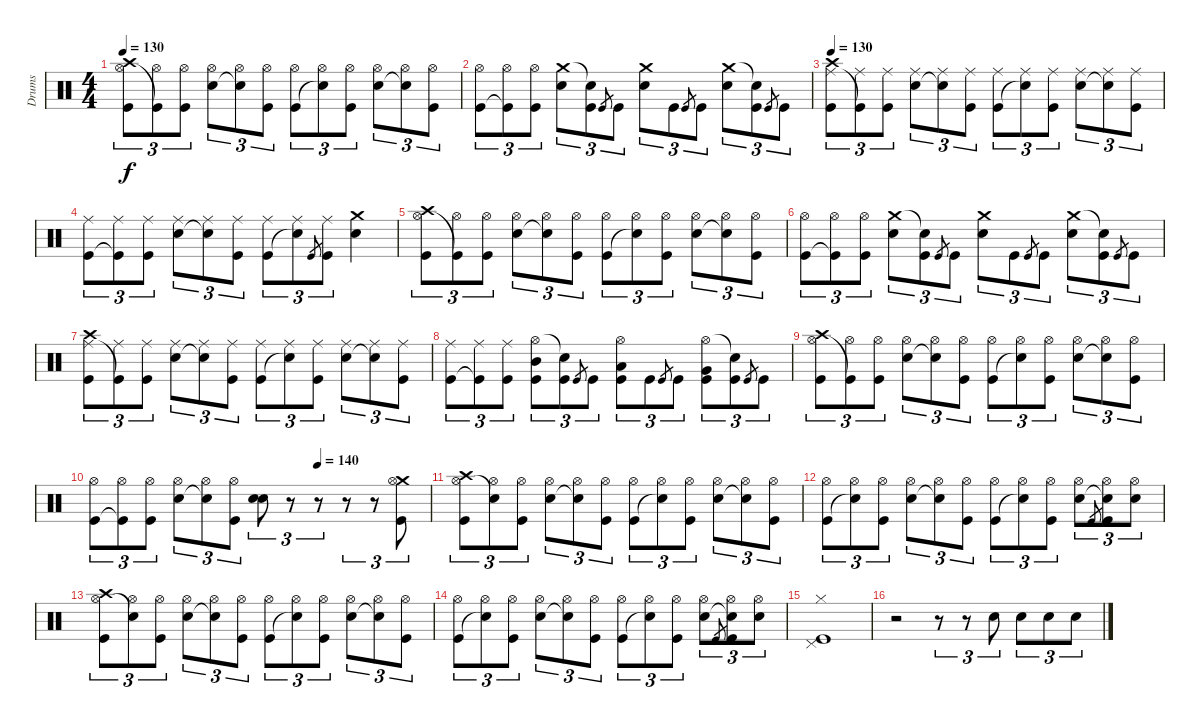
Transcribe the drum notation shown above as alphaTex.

\track ("Drums" "Drums") {instrument percussion}
\staff {score}
\articulation defaults
\ts (4 4)
\tempo 130
\clef neutral
\ks c
("Crash high (hit)" "Hi-Hat (open)" "Kick (hit)").8{tu (3 2) dy f} ("Hi-Hat (open)" "Kick (hit)"{t}).8{tu (3 2)} ("Hi-Hat (open)" "Kick (hit)").8{tu (3 2)} ("Hi-Hat (open)" "Electric Snare (hit)").8{tu (3 2)} ("Hi-Hat (open)" "Snare (hit)"{t}).8{tu (3 2)} ("Hi-Hat (open)" "Kick (hit)").8{tu (3 2)} ("Hi-Hat (open)" "Kick (hit)").8{tu (3 2)} ("Hi-Hat (open)" "Snare (hit)"{t}).8{tu (3 2)} ("Hi-Hat (open)" "Kick (hit)").8{tu (3 2)} ("Hi-Hat (open)" "Electric Snare (hit)").8{tu (3 2)} ("Hi-Hat (open)" "Snare (hit)"{t}).8{tu (3 2)} ("Hi-Hat (open)" "Kick (hit)").8{tu (3 2)} |
("Hi-Hat (open)" "Kick (hit)").8{tu (3 2)} ("Hi-Hat (open)" "Kick (hit)"{t}).8{tu (3 2)} ("Hi-Hat (open)" "Kick (hit)").8{tu (3 2)} ("Crash medium (hit)" "Electric Snare (hit)").8{tu (3 2)} ("Snare (hit)"{t} "Kick (hit)").8{tu (3 2)} "Kick (hit)".8{gr} "Kick (hit)".8{tu (3 2)} ("Crash medium (hit)" "Electric Snare (hit)").8{tu (3 2)} "Kick (hit)".8{tu (3 2)} "Kick (hit)".8{gr} "Kick (hit)".8{tu (3 2)} ("Crash medium (hit)" "Electric Snare (hit)").8{tu (3 2)} ("Snare (hit)"{t} "Kick (hit)").8{tu (3 2)} "Kick (hit)".8{gr} "Kick (hit)".8{tu (3 2)} |
\tempo 130
("Crash high (hit)" "Ride (middle)" "Kick (hit)").8{tu (3 2)} ("Ride (middle)" "Kick (hit)"{t}).8{tu (3 2)} ("Ride (middle)" "Kick (hit)").8{tu (3 2)} ("Ride (middle)" "Electric Snare (hit)").8{tu (3 2)} ("Ride (middle)" "Snare (hit)"{t}).8{tu (3 2)} ("Ride (middle)" "Kick (hit)").8{tu (3 2)} ("Ride (middle)" "Kick (hit)").8{tu (3 2)} ("Ride (middle)" "Snare (hit)"{t}).8{tu (3 2)} ("Ride (middle)" "Kick (hit)").8{tu (3 2)} ("Ride (middle)" "Electric Snare (hit)").8{tu (3 2)} ("Ride (middle)" "Snare (hit)"{t}).8{tu (3 2)} ("Ride (middle)" "Kick (hit)").8{tu (3 2)} |
("Ride (middle)" "Kick (hit)").8{tu (3 2)} ("Ride (middle)" "Kick (hit)"{t}).8{tu (3 2)} ("Ride (middle)" "Kick (hit)").8{tu (3 2)} ("Ride (middle)" "Electric Snare (hit)").8{tu (3 2)} ("Ride (middle)" "Snare (hit)"{t}).8{tu (3 2)} ("Ride (middle)" "Kick (hit)").8{tu (3 2)} ("Ride (middle)" "Kick (hit)").8{tu (3 2)} ("Ride (middle)" "Snare (hit)"{t}).8{tu (3 2)} "Kick (hit)".8{gr} ("Ride (middle)" "Kick (hit)").8{tu (3 2)} ("Crash medium (hit)" "Electric Snare (hit)").4 |
("Crash high (hit)" "Hi-Hat (open)" "Kick (hit)").8{tu (3 2)} ("Hi-Hat (open)" "Kick (hit)"{t}).8{tu (3 2)} ("Hi-Hat (open)" "Kick (hit)").8{tu (3 2)} ("Hi-Hat (open)" "Electric Snare (hit)").8{tu (3 2)} ("Hi-Hat (open)" "Snare (hit)"{t}).8{tu (3 2)} ("Hi-Hat (open)" "Kick (hit)").8{tu (3 2)} ("Hi-Hat (open)" "Kick (hit)").8{tu (3 2)} ("Hi-Hat (open)" "Snare (hit)"{t}).8{tu (3 2)} ("Hi-Hat (open)" "Kick (hit)").8{tu (3 2)} ("Hi-Hat (open)" "Electric Snare (hit)").8{tu (3 2)} ("Hi-Hat (open)" "Snare (hit)"{t}).8{tu (3 2)} ("Hi-Hat (open)" "Kick (hit)").8{tu (3 2)} |
("Hi-Hat (open)" "Kick (hit)").8{tu (3 2)} ("Hi-Hat (open)" "Kick (hit)"{t}).8{tu (3 2)} ("Hi-Hat (open)" "Kick (hit)").8{tu (3 2)} ("Crash medium (hit)" "Electric Snare (hit)").8{tu (3 2)} ("Snare (hit)"{t} "Kick (hit)").8{tu (3 2)} "Kick (hit)".8{gr} "Kick (hit)".8{tu (3 2)} ("Crash medium (hit)" "Electric Snare (hit)").8{tu (3 2)} "Kick (hit)".8{tu (3 2)} "Kick (hit)".8{gr} "Kick (hit)".8{tu (3 2)} ("Crash medium (hit)" "Electric Snare (hit)").8{tu (3 2)} ("Snare (hit)"{t} "Kick (hit)").8{tu (3 2)} "Kick (hit)".8{gr} "Kick (hit)".8{tu (3 2)} |
("Crash high (hit)" "Ride (middle)" "Kick (hit)").8{tu (3 2)} ("Ride (middle)" "Kick (hit)"{t}).8{tu (3 2)} ("Ride (middle)" "Kick (hit)").8{tu (3 2)} ("Ride (middle)" "Electric Snare (hit)").8{tu (3 2)} ("Ride (middle)" "Snare (hit)"{t}).8{tu (3 2)} ("Ride (middle)" "Kick (hit)").8{tu (3 2)} ("Ride (middle)" "Kick (hit)").8{tu (3 2)} ("Ride (middle)" "Snare (hit)"{t}).8{tu (3 2)} ("Ride (middle)" "Kick (hit)").8{tu (3 2)} ("Ride (middle)" "Electric Snare (hit)").8{tu (3 2)} ("Ride (middle)" "Snare (hit)"{t}).8{tu (3 2)} ("Ride (middle)" "Kick (hit)").8{tu (3 2)} |
("Ride (middle)" "Kick (hit)").8{tu (3 2)} ("Ride (middle)" "Kick (hit)"{t}).8{tu (3 2)} ("Ride (middle)" "Kick (hit)").8{tu (3 2)} ("Hi-Hat (open)" "Mid Tom (hit)" "Kick (hit)").8{tu (3 2)} ("Snare (hit)"{t} "Kick (hit)").8{tu (3 2)} "Kick (hit)".8{gr} "Kick (hit)".8{tu (3 2)} ("Hi-Hat (open)" "Low Tom (hit)" "Kick (hit)").8{tu (3 2)} "Kick (hit)".8{tu (3 2)} "Kick (hit)".8{gr} "Kick (hit)".8{tu (3 2)} ("Hi-Hat (open)" "Very Low Tom (hit)" "Kick (hit)").8{tu (3 2)} ("Snare (hit)"{t} "Kick (hit)").8{tu (3 2)} "Kick (hit)".8{gr} "Kick (hit)".8{tu (3 2)} |
("Crash high (hit)" "Hi-Hat (open)" "Kick (hit)").8{tu (3 2)} ("Hi-Hat (open)" "Kick (hit)"{t}).8{tu (3 2)} ("Hi-Hat (open)" "Kick (hit)").8{tu (3 2)} ("Hi-Hat (open)" "Electric Snare (hit)").8{tu (3 2)} ("Hi-Hat (open)" "Snare (hit)"{t}).8{tu (3 2)} ("Hi-Hat (open)" "Kick (hit)").8{tu (3 2)} ("Hi-Hat (open)" "Kick (hit)").8{tu (3 2)} ("Hi-Hat (open)" "Snare (hit)"{t}).8{tu (3 2)} ("Hi-Hat (open)" "Kick (hit)").8{tu (3 2)} ("Hi-Hat (open)" "Electric Snare (hit)").8{tu (3 2)} ("Hi-Hat (open)" "Snare (hit)"{t}).8{tu (3 2)} ("Hi-Hat (open)" "Kick (hit)").8{tu (3 2)} |
\tempo (140 0.6666666666666666)
("Hi-Hat (open)" "Kick (hit)").8{tu (3 2)} ("Hi-Hat (open)" "Kick (hit)"{t}).8{tu (3 2)} ("Hi-Hat (open)" "Kick (hit)").8{tu (3 2)} ("Hi-Hat (open)" "Electric Snare (hit)").8{tu (3 2)} ("Hi-Hat (open)" "Snare (hit)"{t}).8{tu (3 2)} ("Hi-Hat (open)" "Kick (hit)").8{tu (3 2)} ("Snare (hit) 2" "Electric Snare (hit)").8{tu (3 2)} r.8{tu (3 2)} r.8{tu (3 2)} r.8{tu (3 2)} r.8{tu (3 2)} ("Crash medium (hit)" "Hi-Hat (open)" "Kick (hit)").8{tu (3 2)} |
("Crash high (hit)" "Hi-Hat (open)" "Kick (hit)").8{tu (3 2)} ("Hi-Hat (open)" "Snare (hit)"{t}).8{tu (3 2)} ("Hi-Hat (open)" "Kick (hit)").8{tu (3 2)} ("Hi-Hat (open)" "Electric Snare (hit)").8{tu (3 2)} ("Hi-Hat (open)" "Snare (hit)"{t}).8{tu (3 2)} ("Hi-Hat (open)" "Kick (hit)").8{tu (3 2)} ("Hi-Hat (open)" "Kick (hit)").8{tu (3 2)} ("Hi-Hat (open)" "Snare (hit)"{t}).8{tu (3 2)} ("Hi-Hat (open)" "Kick (hit)").8{tu (3 2)} ("Hi-Hat (open)" "Electric Snare (hit)").8{tu (3 2)} ("Hi-Hat (open)" "Snare (hit)"{t}).8{tu (3 2)} ("Hi-Hat (open)" "Kick (hit)").8{tu (3 2)} |
("Hi-Hat (open)" "Kick (hit)").8{tu (3 2)} ("Hi-Hat (open)" "Snare (hit)"{t}).8{tu (3 2)} ("Hi-Hat (open)" "Kick (hit)").8{tu (3 2)} ("Hi-Hat (open)" "Electric Snare (hit)").8{tu (3 2)} ("Hi-Hat (open)" "Snare (hit)"{t}).8{tu (3 2)} ("Hi-Hat (open)" "Kick (hit)").8{tu (3 2)} ("Hi-Hat (open)" "Kick (hit)").8{tu (3 2)} ("Hi-Hat (open)" "Snare (hit)"{t}).8{tu (3 2)} ("Hi-Hat (open)" "Kick (hit)").8{tu (3 2)} ("Hi-Hat (open)" "Electric Snare (hit)").8{tu (3 2)} "Kick (hit)".8{gr} ("Hi-Hat (open)" "Snare (hit)"{t} "Kick (hit)").8{tu (3 2)} ("Hi-Hat (open)" "Electric Snare (hit)").8{tu (3 2)} |
("Crash high (hit)" "Hi-Hat (open)" "Kick (hit)").8{tu (3 2)} ("Hi-Hat (open)" "Snare (hit)"{t}).8{tu (3 2)} ("Hi-Hat (open)" "Kick (hit)").8{tu (3 2)} ("Hi-Hat (open)" "Electric Snare (hit)").8{tu (3 2)} ("Hi-Hat (open)" "Snare (hit)"{t}).8{tu (3 2)} ("Hi-Hat (open)" "Kick (hit)").8{tu (3 2)} ("Hi-Hat (open)" "Kick (hit)").8{tu (3 2)} ("Hi-Hat (open)" "Snare (hit)"{t}).8{tu (3 2)} ("Hi-Hat (open)" "Kick (hit)").8{tu (3 2)} ("Hi-Hat (open)" "Electric Snare (hit)").8{tu (3 2)} ("Hi-Hat (open)" "Snare (hit)"{t}).8{tu (3 2)} ("Hi-Hat (open)" "Kick (hit)").8{tu (3 2)} |
("Hi-Hat (open)" "Kick (hit)").8{tu (3 2)} ("Hi-Hat (open)" "Snare (hit)"{t}).8{tu (3 2)} ("Hi-Hat (open)" "Kick (hit)").8{tu (3 2)} ("Hi-Hat (open)" "Electric Snare (hit)").8{tu (3 2)} ("Hi-Hat (open)" "Snare (hit)"{t}).8{tu (3 2)} ("Hi-Hat (open)" "Kick (hit)").8{tu (3 2)} ("Hi-Hat (open)" "Kick (hit)").8{tu (3 2)} ("Hi-Hat (open)" "Snare (hit)"{t}).8{tu (3 2)} ("Hi-Hat (open)" "Kick (hit)").8{tu (3 2)} ("Hi-Hat (open)" "Electric Snare (hit)").8{tu (3 2)} "Kick (hit)".8{gr} ("Hi-Hat (open)" "Snare (hit)"{t} "Kick (hit)").8{tu (3 2)} ("Hi-Hat (open)" "Electric Snare (hit)").8{tu (3 2)} |
("Pedal Hi-Hat (hit)" "Hi-Hat (closed)" "Kick (hit)").1 |
r.2 r.8{tu (3 2)} r.8{tu (3 2)} "Electric Snare (hit)".8{tu (3 2)} "Electric Snare (hit)".8{tu (3 2)} "Electric Snare (hit)".8{tu (3 2)} "Electric Snare (hit)".8{tu (3 2)}
